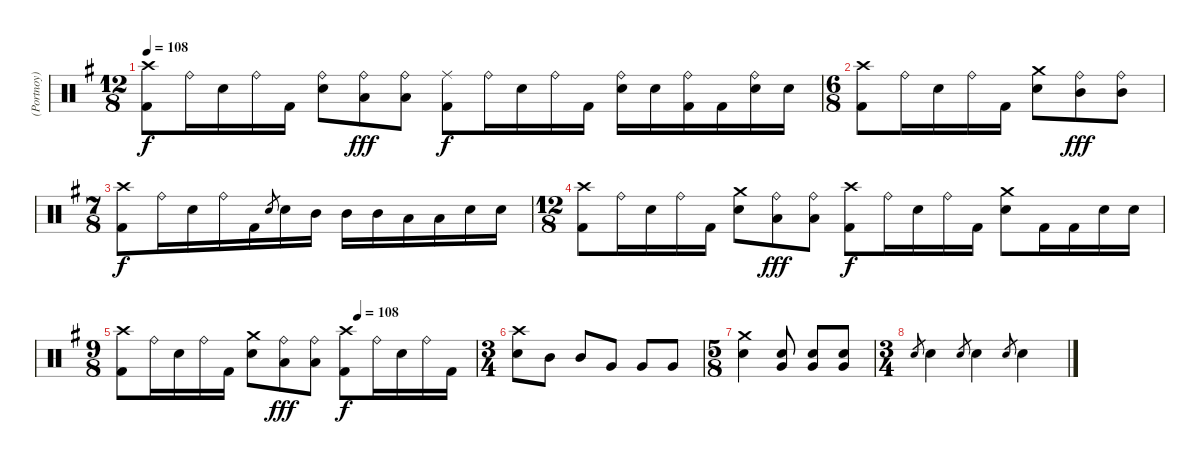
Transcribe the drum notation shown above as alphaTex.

\track ("(Portnoy) Drums" "(Portnoy) ") {instrument percussion}
\staff {score}
\articulation defaults
\ts (12 8)
\tempo 108
\clef neutral
\ks eminor
("Crash high (hit)" "Kick (hit) 2").8{dy f} "Ride (bell)".16 "Snare (hit) 2".16 "Ride (bell)".16 "Kick (hit) 2".16 ("Ride (bell)" "Snare (hit) 2").8 ("Ride (bell)" "Low Tom (hit)").8{dy fff} ("Ride (bell)" "Low Tom (hit)").8 ("Ride (middle)" "Kick (hit) 2").8{dy f} "Ride (bell)".16 "Snare (hit) 2".16 "Ride (bell)".16 "Kick (hit) 2".16 ("Ride (bell)" "Snare (hit) 2").16 "Snare (hit) 2".16 ("Ride (bell)" "Kick (hit) 2").16 "Kick (hit) 2".16 ("Ride (bell)" "Snare (hit) 2").16 "Snare (hit) 2".16 |
\ts (6 8)
("Crash high (hit)" "Kick (hit) 2").8 "Ride (bell)".16 "Snare (hit) 2".16 "Ride (bell)".16 "Kick (hit) 2".16 ("Crash medium (hit)" "Snare (hit) 2").8 ("Ride (bell)" "Mid Tom (hit)").8{dy fff} ("Ride (bell)" "Mid Tom (hit)").8 |
\ts (7 8)
("Crash high (hit)" "Kick (hit) 2").8{dy f} "Ride (bell)".16 "Snare (hit) 2".16 "Ride (bell)".16 "Kick (hit) 2".16 "Snare (hit) 2".8{gr} "Snare (hit) 2".16 "Mid Tom (hit)".16 "Mid Tom (hit)".16 "Mid Tom (hit)".16 "Low Tom (hit)".16 "Low Tom (hit)".16 "Snare (hit) 2".16 "Snare (hit) 2".16 |
\ts (12 8)
("Crash high (hit)" "Kick (hit) 2").8 "Ride (bell)".16 "Snare (hit) 2".16 "Ride (bell)".16 "Kick (hit) 2".16 ("Crash medium (hit)" "Snare (hit) 2").8 ("Ride (bell)" "Low Tom (hit)").8{dy fff} ("Ride (bell)" "Low Tom (hit)").8 ("Crash high (hit)" "Kick (hit) 2").8{dy f} "Ride (bell)".16 "Snare (hit) 2".16 "Ride (bell)".16 "Kick (hit) 2".16 ("Crash medium (hit)" "Snare (hit) 2").8 "Kick (hit) 2".16 "Kick (hit) 2".16 "Snare (hit) 2".16 "Snare (hit) 2".16 |
\ts (9 8)
\tempo (108 0.6666666666666666)
("Crash high (hit)" "Kick (hit) 2").8 "Ride (bell)".16 "Snare (hit) 2".16 "Ride (bell)".16 "Kick (hit) 2".16 ("Crash medium (hit)" "Snare (hit) 2").8 ("Ride (bell)" "Low Tom (hit)").8{dy fff} ("Ride (bell)" "Low Tom (hit)").8 ("Crash high (hit)" "Kick (hit) 2").8{dy f} "Ride (bell)".16 "Snare (hit) 2".16 "Ride (bell)".16 "Kick (hit) 2".16 |
\ts (3 4)
("Crash high (hit)" "Snare (hit) 2").8 "Mid Tom (hit)".8 "Mid Tom (hit)".8 "Very Low Tom (hit)".8 "Very Low Tom (hit)".8 "Very Low Tom (hit)".8 |
\ts (5 8)
("Crash medium (hit)" "Snare (hit) 2").4 ("Snare (hit) 2" "Very Low Tom (hit)").8 ("Snare (hit) 2" "Very Low Tom (hit)").8 ("Snare (hit) 2" "Very Low Tom (hit)").8 |
\ts (3 4)
"Snare (hit) 2".8{gr} "Snare (hit) 2".4 "Snare (hit) 2".8{gr} "Snare (hit) 2".4 "Snare (hit) 2".8{gr} "Snare (hit) 2".4
